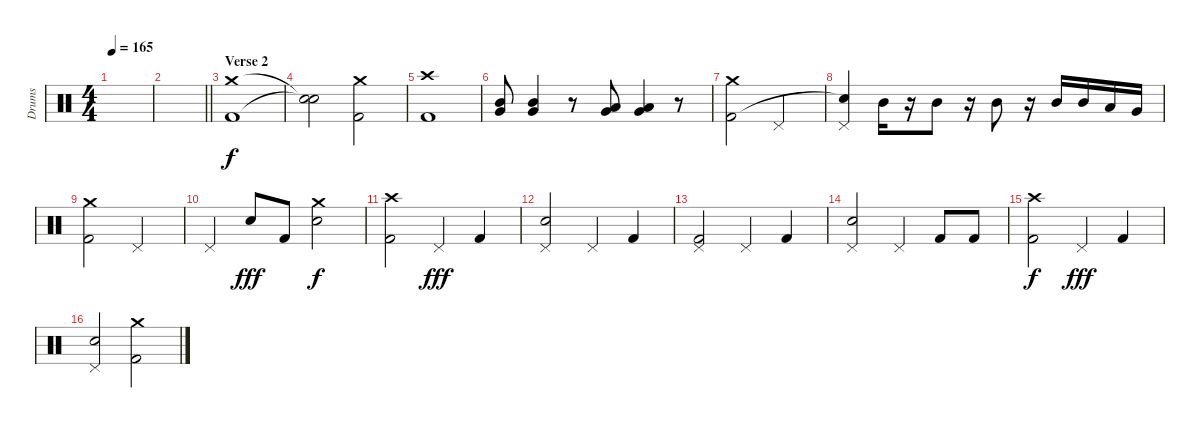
\track ("Drums" "Drums") {instrument percussion}
\staff {score}
\articulation defaults
\ts (4 4)
\tempo 165
\clef neutral
\ks c
|
\barLineRight lightlight
|
\section ("" "Verse 2")
("Crash medium (hit)" "Kick (hit) 2").1 |
("Snare (hit)"{t} "Snare (hit)"{t}).2 ("Crash medium (hit)" "Kick (hit) 2").2 |
("Crash high (hit)" "Kick (hit) 2").1 |
("Mid Tom (hit)" "Very Low Tom (hit)").8 ("Mid Tom (hit)" "Very Low Tom (hit)").4 r.8 ("Low Tom (hit)" "Very Low Tom (hit)").8 ("Low Tom (hit)" "Very Low Tom (hit)").4 r.8 |
("Crash medium (hit)" "Kick (hit) 2").2 "Pedal Hi-Hat (hit)".2 |
("Pedal Hi-Hat (hit)" "Snare (hit)"{t}).4 "Mid Tom (hit)".16 r.16 "Mid Tom (hit)".8 r.16 "Mid Tom (hit)".8 r.16 "Mid Tom (hit)".16 "Mid Tom (hit)".16 "Low Tom (hit)".16 "Very Low Tom (hit)".16 |
("Crash medium (hit)" "Kick (hit) 2").2 "Pedal Hi-Hat (hit)".2 |
"Pedal Hi-Hat (hit)".4 "Snare (hit)".8{dy fff} "Kick (hit) 2".8 ("Crash medium (hit)" "Electric Snare (hit)").2{dy f} |
("Crash high (hit)" "Kick (hit) 2").2 "Pedal Hi-Hat (hit)".4{dy fff} "Kick (hit) 2".4 |
("Pedal Hi-Hat (hit)" "Electric Snare (hit)").2 "Pedal Hi-Hat (hit)".4 "Kick (hit) 2".4 |
("Pedal Hi-Hat (hit)" "Kick (hit) 2").2 "Pedal Hi-Hat (hit)".4 "Kick (hit) 2".4 |
("Pedal Hi-Hat (hit)" "Electric Snare (hit)").2 "Pedal Hi-Hat (hit)".4 "Kick (hit) 2".8 "Kick (hit) 2".8 |
("Crash high (hit)" "Kick (hit) 2").2{dy f} "Pedal Hi-Hat (hit)".4{dy fff} "Kick (hit) 2".4 |
("Pedal Hi-Hat (hit)" "Electric Snare (hit)").2 ("Crash medium (hit)" "Kick (hit) 2").2
